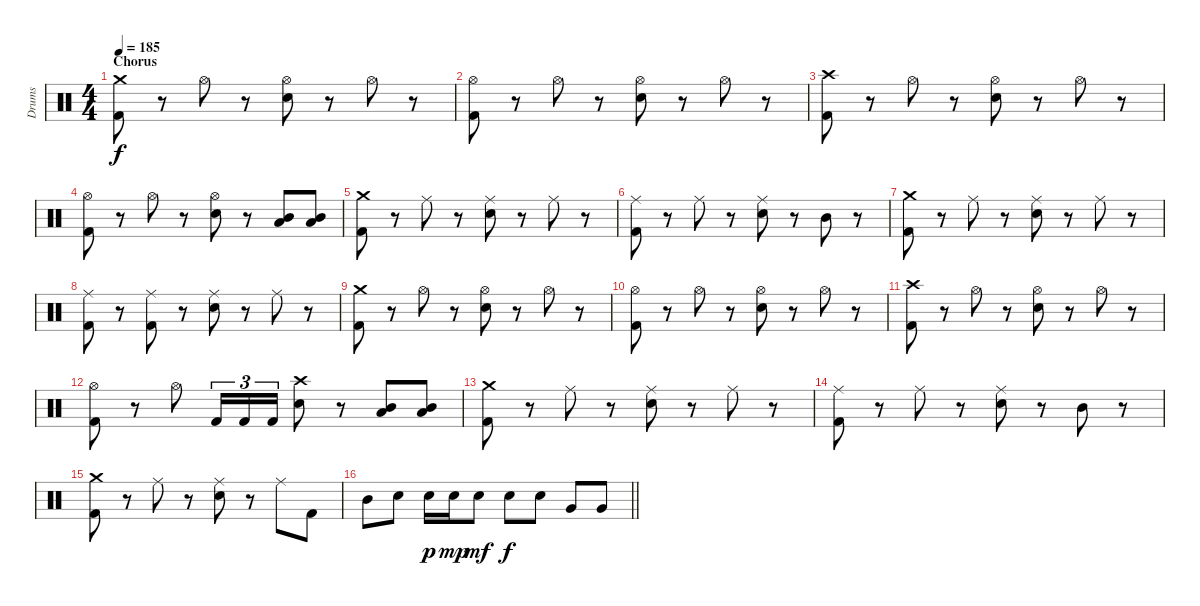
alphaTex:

\track ("Drums" "Drums") {instrument percussion}
\staff {score}
\articulation defaults
\ts (4 4)
\section ("" "Chorus")
\tempo 185
\clef neutral
\ks c
("Crash medium (hit)" "Kick (hit) 2").8{dy f} r.8 "Hi-Hat (open)".8 r.8 ("Hi-Hat (open)" "Electric Snare (hit)").8 r.8 "Hi-Hat (open)".8 r.8 |
("Hi-Hat (open)" "Kick (hit) 2").8 r.8 "Hi-Hat (open)".8 r.8 ("Hi-Hat (open)" "Electric Snare (hit)").8 r.8 "Hi-Hat (open)".8 r.8 |
("Crash high (hit)" "Kick (hit) 2").8 r.8 "Hi-Hat (open)".8 r.8 ("Hi-Hat (open)" "Electric Snare (hit)").8 r.8 "Hi-Hat (open)".8 r.8 |
("Hi-Hat (open)" "Kick (hit) 2").8 r.8 "Hi-Hat (open)".8 r.8 ("Hi-Hat (open)" "Electric Snare (hit)").8 r.8 ("Mid Tom (hit)" "Low Tom (hit)").8 ("Mid Tom (hit)" "Low Tom (hit)").8 |
("Crash medium (hit)" "Kick (hit) 2").8 r.8 "Ride (middle)".8 r.8 ("Ride (middle)" "Electric Snare (hit)").8 r.8 "Ride (middle)".8 r.8 |
("Ride (middle)" "Kick (hit) 2").8 r.8 "Ride (middle)".8 r.8 ("Ride (middle)" "Electric Snare (hit)").8 r.8 "Mid Tom (hit)".8 r.8 |
("Crash medium (hit)" "Kick (hit) 2").8 r.8 "Ride (middle)".8 r.8 ("Ride (middle)" "Electric Snare (hit)").8 r.8 "Ride (middle)".8 r.8 |
("Ride (middle)" "Kick (hit) 2").8 r.8 ("Ride (middle)" "Kick (hit) 2").8 r.8 ("Ride (middle)" "Electric Snare (hit)").8 r.8 "Ride (middle)".8 r.8 |
("Crash medium (hit)" "Kick (hit) 2").8 r.8 "Hi-Hat (open)".8 r.8 ("Hi-Hat (open)" "Electric Snare (hit)").8 r.8 "Hi-Hat (open)".8 r.8 |
("Hi-Hat (open)" "Kick (hit) 2").8 r.8 "Hi-Hat (open)".8 r.8 ("Hi-Hat (open)" "Electric Snare (hit)").8 r.8 "Hi-Hat (open)".8 r.8 |
("Crash high (hit)" "Kick (hit) 2").8 r.8 "Hi-Hat (open)".8 r.8 ("Hi-Hat (open)" "Electric Snare (hit)").8 r.8 "Hi-Hat (open)".8 r.8 |
("Hi-Hat (open)" "Kick (hit) 2").8 r.8 "Hi-Hat (open)".8 "Kick (hit) 2".16{tu (3 2)} "Kick (hit) 2".16{tu (3 2)} "Kick (hit) 2".16{tu (3 2)} ("Crash high (hit)" "Electric Snare (hit)").8 r.8 ("Mid Tom (hit)" "Low Tom (hit)").8 ("Mid Tom (hit)" "Low Tom (hit)").8 |
("Crash medium (hit)" "Kick (hit) 2").8 r.8 "Ride (middle)".8 r.8 ("Ride (middle)" "Electric Snare (hit)").8 r.8 "Ride (middle)".8 r.8 |
("Ride (middle)" "Kick (hit) 2").8 r.8 "Ride (middle)".8 r.8 ("Ride (middle)" "Electric Snare (hit)").8 r.8 "Mid Tom (hit)".8 r.8 |
("Crash medium (hit)" "Kick (hit) 2").8 r.8 "Ride (middle)".8 r.8 ("Ride (middle)" "Electric Snare (hit)").8 r.8 "Ride (middle)".8 "Kick (hit) 2".8 |
\barLineRight lightlight "Mid Tom (hit)".8 "Electric Snare (hit)".8 "Electric Snare (hit)".16{dy p} "Electric Snare (hit)".16{dy mp} "Electric Snare (hit)".8{dy mf} "Electric Snare (hit)".8{dy f} "Electric Snare (hit)".8 "Very Low Tom (hit)".8 "Very Low Tom (hit)".8
